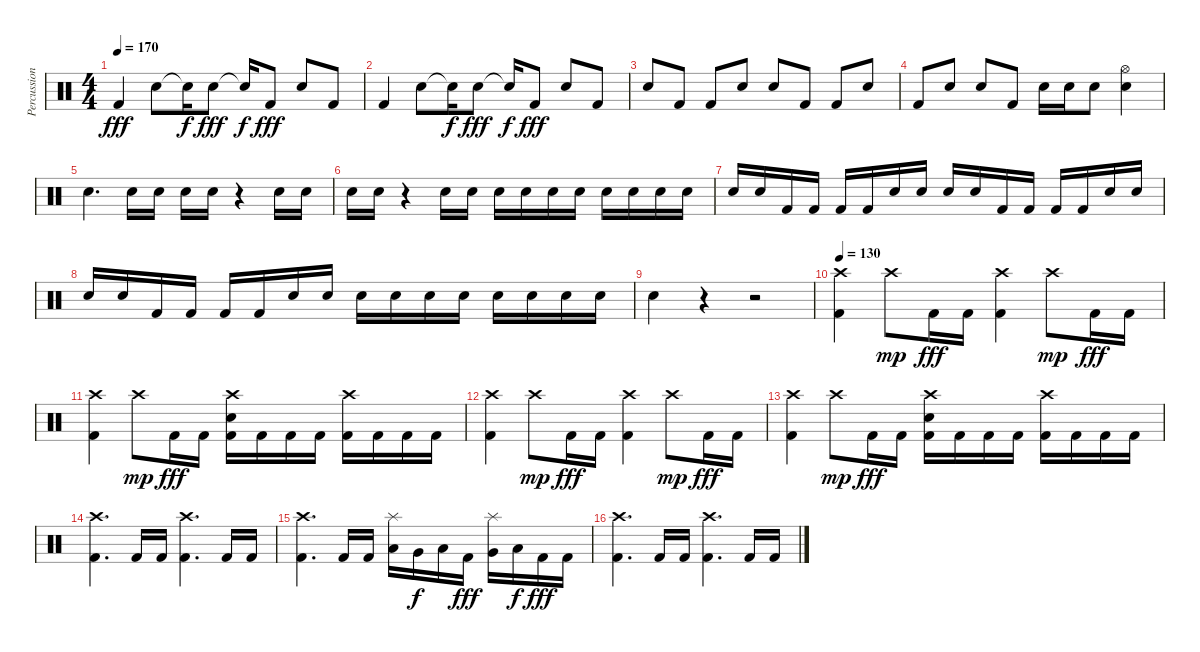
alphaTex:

\track ("Percussion" "Percussion") {instrument percussion}
\staff {score}
\articulation defaults
\ts (4 4)
\tempo 170
\clef neutral
\ks c "Kick (hit) 2".4{dy fff} "Electric Snare (hit)".8 "Electric Snare (hit)"{t}.16{dy f} "Electric Snare (hit)".8{dy fff} "Electric Snare (hit)"{t}.16{dy f} "Kick (hit) 2".8{dy fff} "Electric Snare (hit)".8 "Kick (hit) 2".8
|
"Kick (hit) 2".4 "Electric Snare (hit)".8 "Electric Snare (hit)"{t}.16{dy f} "Electric Snare (hit)".8{dy fff} "Electric Snare (hit)"{t}.16{dy f} "Kick (hit) 2".8{dy fff} "Electric Snare (hit)".8 "Kick (hit) 2".8 |
"Electric Snare (hit)".8 "Kick (hit) 2".8 "Kick (hit) 2".8 "Electric Snare (hit)".8 "Electric Snare (hit)".8 "Kick (hit) 2".8 "Kick (hit) 2".8 "Electric Snare (hit)".8 |
"Kick (hit) 2".8 "Electric Snare (hit)".8 "Electric Snare (hit)".8 "Kick (hit) 2".8 "Electric Snare (hit)".16 "Electric Snare (hit)".16 "Electric Snare (hit)".8 ("Hi-Hat (open)" "Electric Snare (hit)").4 |
"Electric Snare (hit)".4{d} "Electric Snare (hit)".16 "Electric Snare (hit)".16 "Electric Snare (hit)".16 "Electric Snare (hit)".16 r.4 "Electric Snare (hit)".16 "Electric Snare (hit)".16 |
"Electric Snare (hit)".16 "Electric Snare (hit)".16 r.4 "Electric Snare (hit)".16 "Electric Snare (hit)".16 "Electric Snare (hit)".16 "Electric Snare (hit)".16 "Electric Snare (hit)".16 "Electric Snare (hit)".16 "Electric Snare (hit)".16 "Electric Snare (hit)".16 "Electric Snare (hit)".16 "Electric Snare (hit)".16 |
"Electric Snare (hit)".16 "Electric Snare (hit)".16 "Kick (hit) 2".16 "Kick (hit) 2".16 "Kick (hit) 2".16 "Kick (hit) 2".16 "Electric Snare (hit)".16 "Electric Snare (hit)".16 "Electric Snare (hit)".16 "Electric Snare (hit)".16 "Kick (hit) 2".16 "Kick (hit) 2".16 "Kick (hit) 2".16 "Kick (hit) 2".16 "Electric Snare (hit)".16 "Electric Snare (hit)".16 |
"Electric Snare (hit)".16 "Electric Snare (hit)".16 "Kick (hit) 2".16 "Kick (hit) 2".16 "Kick (hit) 2".16 "Kick (hit) 2".16 "Electric Snare (hit)".16 "Electric Snare (hit)".16 "Electric Snare (hit)".16 "Electric Snare (hit)".16 "Electric Snare (hit)".16 "Electric Snare (hit)".16 "Electric Snare (hit)".16 "Electric Snare (hit)".16 "Electric Snare (hit)".16 "Electric Snare (hit)".16 |
"Electric Snare (hit)".4 r.4 r.2 |
\tempo 130
("Crash high (hit)" "Kick (hit) 2").4 "Crash high (hit)".8{dy mp} "Kick (hit) 2".16{dy fff} "Kick (hit) 2".16 ("Crash high (hit)" "Kick (hit) 2").4 "Crash high (hit)".8{dy mp} "Kick (hit) 2".16{dy fff} "Kick (hit) 2".16 |
("Crash high (hit)" "Kick (hit) 2").4 "Crash high (hit)".8{dy mp} "Kick (hit) 2".16{dy fff} "Kick (hit) 2".16 ("Crash high (hit)" "Electric Snare (hit)" "Kick (hit) 2").16 "Kick (hit) 2".16 "Kick (hit) 2".16 "Kick (hit) 2".16 ("Crash high (hit)" "Kick (hit) 2").16 "Kick (hit) 2".16 "Kick (hit) 2".16 "Kick (hit) 2".16 |
("Crash high (hit)" "Kick (hit) 2").4 "Crash high (hit)".8{dy mp} "Kick (hit) 2".16{dy fff} "Kick (hit) 2".16 ("Crash high (hit)" "Kick (hit) 2").4 "Crash high (hit)".8{dy mp} "Kick (hit) 2".16{dy fff} "Kick (hit) 2".16 |
("Crash high (hit)" "Kick (hit) 2").4 "Crash high (hit)".8{dy mp} "Kick (hit) 2".16{dy fff} "Kick (hit) 2".16 ("Crash high (hit)" "Electric Snare (hit)" "Kick (hit) 2").16 "Kick (hit) 2".16 "Kick (hit) 2".16 "Kick (hit) 2".16 ("Crash high (hit)" "Kick (hit) 2").16 "Kick (hit) 2".16 "Kick (hit) 2".16 "Kick (hit) 2".16 |
("Crash high (hit)" "Kick (hit) 2").4{d} "Kick (hit) 2".16 "Kick (hit) 2".16 ("Crash high (hit)" "Kick (hit) 2").4{d} "Kick (hit) 2".16 "Kick (hit) 2".16 |
("Crash high (hit)" "Kick (hit) 2").4{d} "Kick (hit) 2".16 "Kick (hit) 2".16 ("Splash (hit)" "Low Tom (hit)").16 "Very Low Tom (hit)".16{dy f} "Low Floor Tom (hit)".16 "Kick (hit) 2".16{dy fff} ("Splash (hit)" "Very Low Tom (hit)").16 "Low Floor Tom (hit)".16{dy f} "Kick (hit) 2".16{dy fff} "Kick (hit) 2".16 |
("Crash high (hit)" "Kick (hit) 2").4{d} "Kick (hit) 2".16 "Kick (hit) 2".16 ("Crash high (hit)" "Kick (hit) 2").4{d} "Kick (hit) 2".16 "Kick (hit) 2".16
